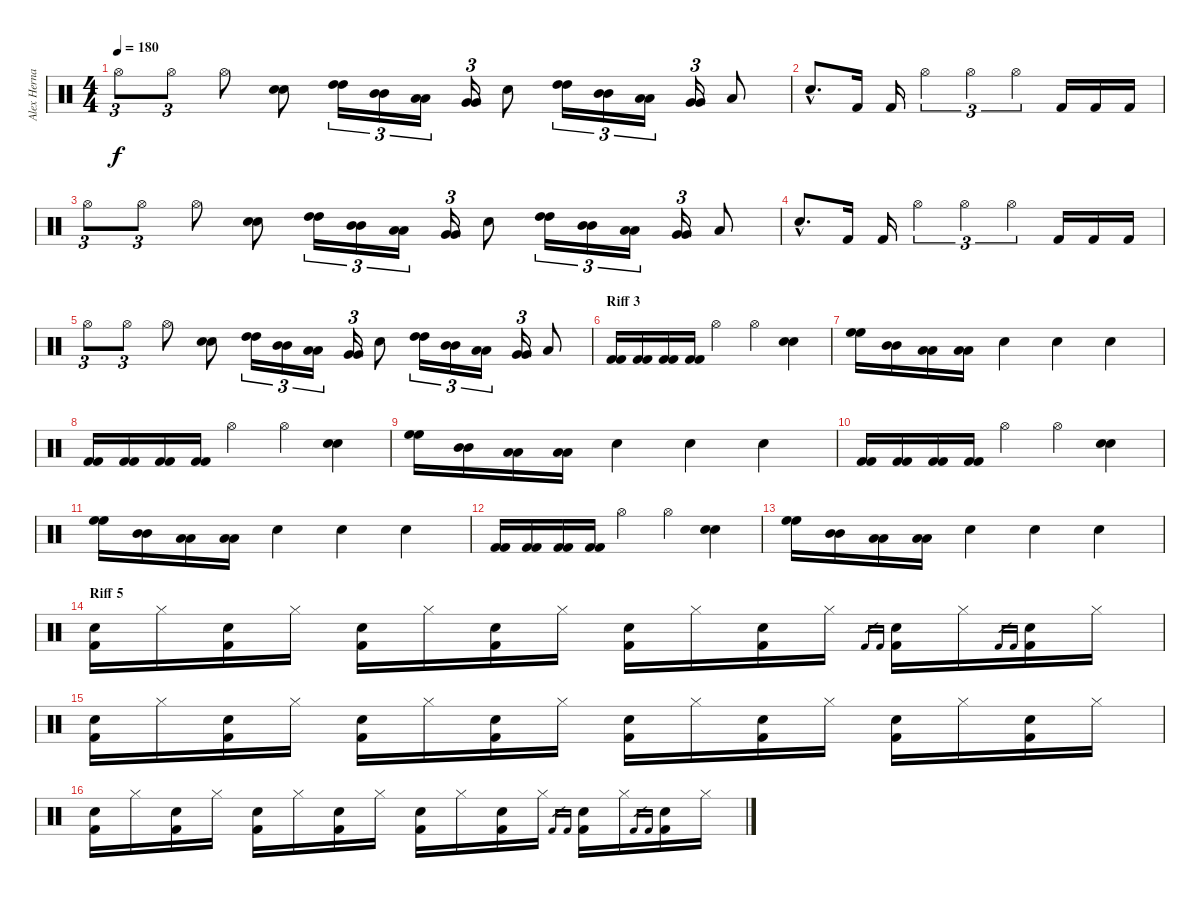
\track ("Alex Hernandez" "Alex Herna") {instrument percussion}
\staff {score}
\articulation defaults
\ts (4 4)
\tempo 180
\clef neutral
\ks c "Hi-Hat (open)".8{tu (3 2) dy f} "Hi-Hat (open)".8{tu (3 2)} "Hi-Hat (open)".8
("Snare (hit) 2" "Snare (hit) 2").8 ("High Tom (hit)" "High Tom (hit)").16{tu (3 2)} ("Mid Tom (hit)" "Mid Tom (hit)").16{tu (3 2)} ("Low Tom (hit)" "Low Tom (hit)").16{tu (3 2)} ("Very Low Tom (hit)" "Very Low Tom (hit)").16{tu (3 2)} "Snare (hit) 2".8 ("High Tom (hit)" "High Tom (hit)").16{tu (3 2)} ("Mid Tom (hit)" "Mid Tom (hit)").16{tu (3 2)} ("Low Tom (hit)" "Low Tom (hit)").16{tu (3 2)} ("Very Low Tom (hit)" "Very Low Tom (hit)").16{tu (3 2)} "Low Tom (hit)".8 |
"Snare (hit) 2"{hac}.8{d} "Kick (hit) 2".16 "Kick (hit) 2".16 "Hi-Hat (open)".4{tu (3 2)} "Hi-Hat (open)".4{tu (3 2)} "Hi-Hat (open)".4{tu (3 2)} "Kick (hit) 2".16 "Kick (hit) 2".16 "Kick (hit) 2".16 |
"Hi-Hat (open)".8{tu (3 2)} "Hi-Hat (open)".8{tu (3 2)} "Hi-Hat (open)".8 ("Snare (hit) 2" "Snare (hit) 2").8 ("High Tom (hit)" "High Tom (hit)").16{tu (3 2)} ("Mid Tom (hit)" "Mid Tom (hit)").16{tu (3 2)} ("Low Tom (hit)" "Low Tom (hit)").16{tu (3 2)} ("Very Low Tom (hit)" "Very Low Tom (hit)").16{tu (3 2)} "Snare (hit) 2".8 ("High Tom (hit)" "High Tom (hit)").16{tu (3 2)} ("Mid Tom (hit)" "Mid Tom (hit)").16{tu (3 2)} ("Low Tom (hit)" "Low Tom (hit)").16{tu (3 2)} ("Very Low Tom (hit)" "Very Low Tom (hit)").16{tu (3 2)} "Low Tom (hit)".8 |
"Snare (hit) 2"{hac}.8{d} "Kick (hit) 2".16 "Kick (hit) 2".16 "Hi-Hat (open)".4{tu (3 2)} "Hi-Hat (open)".4{tu (3 2)} "Hi-Hat (open)".4{tu (3 2)} "Kick (hit) 2".16 "Kick (hit) 2".16 "Kick (hit) 2".16 |
"Hi-Hat (open)".8{tu (3 2)} "Hi-Hat (open)".8{tu (3 2)} "Hi-Hat (open)".8 ("Snare (hit) 2" "Snare (hit) 2").8 ("High Tom (hit)" "High Tom (hit)").16{tu (3 2)} ("Mid Tom (hit)" "Mid Tom (hit)").16{tu (3 2)} ("Low Tom (hit)" "Low Tom (hit)").16{tu (3 2)} ("Very Low Tom (hit)" "Very Low Tom (hit)").16{tu (3 2)} "Snare (hit) 2".8 ("High Tom (hit)" "High Tom (hit)").16{tu (3 2)} ("Mid Tom (hit)" "Mid Tom (hit)").16{tu (3 2)} ("Low Tom (hit)" "Low Tom (hit)").16{tu (3 2)} ("Very Low Tom (hit)" "Very Low Tom (hit)").16{tu (3 2)} "Low Tom (hit)".8 |
\section ("" "Riff 3")
("Kick (hit) 2" "Kick (hit) 2").16 ("Kick (hit) 2" "Kick (hit) 2").16 ("Kick (hit) 2" "Kick (hit) 2").16 ("Kick (hit) 2" "Kick (hit) 2").16 "Hi-Hat (open)".4 "Hi-Hat (open)".4 ("Snare (hit) 2" "Snare (hit) 2").4 |
("High Floor Tom (hit)" "High Floor Tom (hit)").16 ("Mid Tom (hit)" "Mid Tom (hit)").16 ("Low Tom (hit)" "Low Tom (hit)").16 ("Low Floor Tom (hit)" "Low Floor Tom (hit)").16 "Snare (hit) 2".4 "Snare (hit) 2".4 "Snare (hit) 2".4 |
("Kick (hit) 2" "Kick (hit) 2").16 ("Kick (hit) 2" "Kick (hit) 2").16 ("Kick (hit) 2" "Kick (hit) 2").16 ("Kick (hit) 2" "Kick (hit) 2").16 "Hi-Hat (open)".4 "Hi-Hat (open)".4 ("Snare (hit) 2" "Snare (hit) 2").4 |
("High Floor Tom (hit)" "High Floor Tom (hit)").16 ("Mid Tom (hit)" "Mid Tom (hit)").16 ("Low Tom (hit)" "Low Tom (hit)").16 ("Low Floor Tom (hit)" "Low Floor Tom (hit)").16 "Snare (hit) 2".4 "Snare (hit) 2".4 "Snare (hit) 2".4 |
("Kick (hit) 2" "Kick (hit) 2").16 ("Kick (hit) 2" "Kick (hit) 2").16 ("Kick (hit) 2" "Kick (hit) 2").16 ("Kick (hit) 2" "Kick (hit) 2").16 "Hi-Hat (open)".4 "Hi-Hat (open)".4 ("Snare (hit) 2" "Snare (hit) 2").4 |
("High Floor Tom (hit)" "High Floor Tom (hit)").16 ("Mid Tom (hit)" "Mid Tom (hit)").16 ("Low Tom (hit)" "Low Tom (hit)").16 ("Low Floor Tom (hit)" "Low Floor Tom (hit)").16 "Snare (hit) 2".4 "Snare (hit) 2".4 "Snare (hit) 2".4 |
("Kick (hit) 2" "Kick (hit) 2").16 ("Kick (hit) 2" "Kick (hit) 2").16 ("Kick (hit) 2" "Kick (hit) 2").16 ("Kick (hit) 2" "Kick (hit) 2").16 "Hi-Hat (open)".4 "Hi-Hat (open)".4 ("Snare (hit) 2" "Snare (hit) 2").4 |
("High Floor Tom (hit)" "High Floor Tom (hit)").16 ("Mid Tom (hit)" "Mid Tom (hit)").16 ("Low Tom (hit)" "Low Tom (hit)").16 ("Low Floor Tom (hit)" "Low Floor Tom (hit)").16 "Snare (hit) 2".4 "Snare (hit) 2".4 "Snare (hit) 2".4 |
\section ("" "Riff 5")
("Electric Snare (hit)" "Kick (hit) 2").16 "Hi-Hat (closed)".16 ("Electric Snare (hit)" "Kick (hit) 2").16 "Hi-Hat (closed)".16 ("Electric Snare (hit)" "Kick (hit) 2").16 "Hi-Hat (closed)".16 ("Electric Snare (hit)" "Kick (hit) 2").16 "Hi-Hat (closed)".16 ("Electric Snare (hit)" "Kick (hit) 2").16 "Hi-Hat (closed)".16 ("Electric Snare (hit)" "Kick (hit) 2").16 "Hi-Hat (closed)".16 "Kick (hit) 2".16{gr} "Kick (hit) 2".16{gr} ("Electric Snare (hit)" "Kick (hit) 2").16 "Hi-Hat (closed)".16 "Kick (hit) 2".16{gr} "Kick (hit) 2".16{gr} ("Electric Snare (hit)" "Kick (hit) 2").16 "Hi-Hat (closed)".16 |
("Electric Snare (hit)" "Kick (hit) 2").16 "Hi-Hat (closed)".16 ("Electric Snare (hit)" "Kick (hit) 2").16 "Hi-Hat (closed)".16 ("Electric Snare (hit)" "Kick (hit) 2").16 "Hi-Hat (closed)".16 ("Electric Snare (hit)" "Kick (hit) 2").16 "Hi-Hat (closed)".16 ("Electric Snare (hit)" "Kick (hit) 2").16 "Hi-Hat (closed)".16 ("Electric Snare (hit)" "Kick (hit) 2").16 "Hi-Hat (closed)".16 ("Electric Snare (hit)" "Kick (hit) 2").16 "Hi-Hat (closed)".16 ("Electric Snare (hit)" "Kick (hit) 2").16 "Hi-Hat (closed)".16 |
("Electric Snare (hit)" "Kick (hit) 2").16 "Hi-Hat (closed)".16 ("Electric Snare (hit)" "Kick (hit) 2").16 "Hi-Hat (closed)".16 ("Electric Snare (hit)" "Kick (hit) 2").16 "Hi-Hat (closed)".16 ("Electric Snare (hit)" "Kick (hit) 2").16 "Hi-Hat (closed)".16 ("Electric Snare (hit)" "Kick (hit) 2").16 "Hi-Hat (closed)".16 ("Electric Snare (hit)" "Kick (hit) 2").16 "Hi-Hat (closed)".16 "Kick (hit) 2".16{gr} "Kick (hit) 2".16{gr} ("Electric Snare (hit)" "Kick (hit) 2").16 "Hi-Hat (closed)".16 "Kick (hit) 2".16{gr} "Kick (hit) 2".16{gr} ("Electric Snare (hit)" "Kick (hit) 2").16 "Hi-Hat (closed)".16
